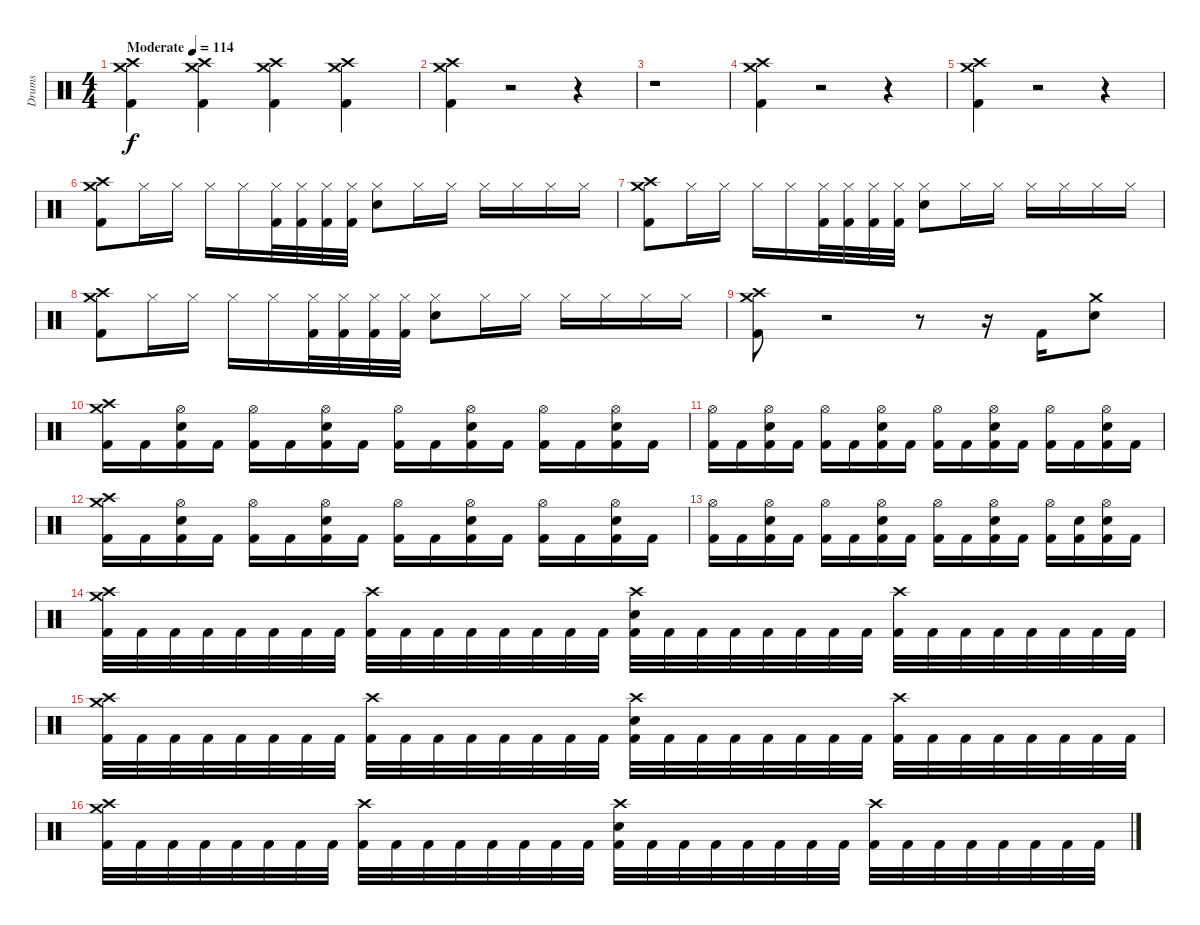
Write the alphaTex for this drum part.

\track ("Drums" "Drums") {instrument percussion}
\staff {score}
\articulation defaults
\ts (4 4)
\tempo (114 "Moderate")
\clef neutral
\ks c
("Crash high (hit)" "Crash medium (hit)" "Kick (hit) 2").4{dy f} ("Crash high (hit)" "Crash medium (hit)" "Kick (hit) 2").4 ("Crash high (hit)" "Crash medium (hit)" "Kick (hit) 2").4 ("Crash high (hit)" "Crash medium (hit)" "Kick (hit) 2").4 |
("Crash high (hit)" "Crash medium (hit)" "Kick (hit) 2").4 r.2 r.4 |
r.1 |
("Crash high (hit)" "Crash medium (hit)" "Kick (hit) 2").4 r.2 r.4 |
("Crash high (hit)" "Crash medium (hit)" "Kick (hit) 2").4 r.2 r.4 |
("Crash high (hit)" "Crash medium (hit)" "Kick (hit) 2").8 "Hi-Hat (closed)".16 "Hi-Hat (closed)".16 "Hi-Hat (closed)".16 "Hi-Hat (closed)".16 ("Hi-Hat (closed)" "Kick (hit) 2").32 ("Hi-Hat (closed)" "Kick (hit) 2").32 ("Hi-Hat (closed)" "Kick (hit) 2").32 ("Hi-Hat (closed)" "Kick (hit) 2").32 ("Hi-Hat (closed)" "Snare (hit) 2").8 "Hi-Hat (closed)".16 "Hi-Hat (closed)".16 "Hi-Hat (closed)".16 "Hi-Hat (closed)".16 "Hi-Hat (closed)".16 "Hi-Hat (closed)".16 |
("Crash high (hit)" "Crash medium (hit)" "Kick (hit) 2").8 "Hi-Hat (closed)".16 "Hi-Hat (closed)".16 "Hi-Hat (closed)".16 "Hi-Hat (closed)".16 ("Hi-Hat (closed)" "Kick (hit) 2").32 ("Hi-Hat (closed)" "Kick (hit) 2").32 ("Hi-Hat (closed)" "Kick (hit) 2").32 ("Hi-Hat (closed)" "Kick (hit) 2").32 ("Hi-Hat (closed)" "Snare (hit) 2").8 "Hi-Hat (closed)".16 "Hi-Hat (closed)".16 "Hi-Hat (closed)".16 "Hi-Hat (closed)".16 "Hi-Hat (closed)".16 "Hi-Hat (closed)".16 |
("Crash high (hit)" "Crash medium (hit)" "Kick (hit) 2").8 "Hi-Hat (closed)".16 "Hi-Hat (closed)".16 "Hi-Hat (closed)".16 "Hi-Hat (closed)".16 ("Hi-Hat (closed)" "Kick (hit) 2").32 ("Hi-Hat (closed)" "Kick (hit) 2").32 ("Hi-Hat (closed)" "Kick (hit) 2").32 ("Hi-Hat (closed)" "Kick (hit) 2").32 ("Hi-Hat (closed)" "Snare (hit) 2").8 "Hi-Hat (closed)".16 "Hi-Hat (closed)".16 "Hi-Hat (closed)".16 "Hi-Hat (closed)".16 "Hi-Hat (closed)".16 "Hi-Hat (closed)".16 |
("Crash high (hit)" "Crash medium (hit)" "Kick (hit) 2").8 r.2 r.8 r.16 "Kick (hit) 2".16 ("Crash medium (hit)" "Snare (hit) 2").8 |
("Crash medium (hit)" "Crash high (hit)" "Kick (hit) 2").16 "Kick (hit) 2".16 ("Hi-Hat (open)" "Snare (hit) 2" "Kick (hit) 2").16 "Kick (hit) 2".16 ("Hi-Hat (open)" "Kick (hit) 2").16 "Kick (hit) 2".16 ("Hi-Hat (open)" "Snare (hit) 2" "Kick (hit) 2").16 "Kick (hit) 2".16 ("Hi-Hat (open)" "Kick (hit) 2").16 "Kick (hit) 2".16 ("Hi-Hat (open)" "Snare (hit) 2" "Kick (hit) 2").16 "Kick (hit) 2".16 ("Hi-Hat (open)" "Kick (hit) 2").16 "Kick (hit) 2".16 ("Hi-Hat (open)" "Snare (hit) 2" "Kick (hit) 2").16 "Kick (hit) 2".16 |
("Hi-Hat (open)" "Kick (hit) 2").16 "Kick (hit) 2".16 ("Hi-Hat (open)" "Snare (hit) 2" "Kick (hit) 2").16 "Kick (hit) 2".16 ("Hi-Hat (open)" "Kick (hit) 2").16 "Kick (hit) 2".16 ("Hi-Hat (open)" "Snare (hit) 2" "Kick (hit) 2").16 "Kick (hit) 2".16 ("Hi-Hat (open)" "Kick (hit) 2").16 "Kick (hit) 2".16 ("Hi-Hat (open)" "Snare (hit) 2" "Kick (hit) 2").16 "Kick (hit) 2".16 ("Hi-Hat (open)" "Kick (hit) 2").16 "Kick (hit) 2".16 ("Hi-Hat (open)" "Snare (hit) 2" "Kick (hit) 2").16 "Kick (hit) 2".16 |
("Crash medium (hit)" "Crash high (hit)" "Kick (hit) 2").16 "Kick (hit) 2".16 ("Hi-Hat (open)" "Snare (hit) 2" "Kick (hit) 2").16 "Kick (hit) 2".16 ("Hi-Hat (open)" "Kick (hit) 2").16 "Kick (hit) 2".16 ("Hi-Hat (open)" "Snare (hit) 2" "Kick (hit) 2").16 "Kick (hit) 2".16 ("Hi-Hat (open)" "Kick (hit) 2").16 "Kick (hit) 2".16 ("Hi-Hat (open)" "Snare (hit) 2" "Kick (hit) 2").16 "Kick (hit) 2".16 ("Hi-Hat (open)" "Kick (hit) 2").16 "Kick (hit) 2".16 ("Hi-Hat (open)" "Snare (hit) 2" "Kick (hit) 2").16 "Kick (hit) 2".16 |
("Hi-Hat (open)" "Kick (hit) 2").16 "Kick (hit) 2".16 ("Hi-Hat (open)" "Snare (hit) 2" "Kick (hit) 2").16 "Kick (hit) 2".16 ("Hi-Hat (open)" "Kick (hit) 2").16 "Kick (hit) 2".16 ("Hi-Hat (open)" "Snare (hit) 2" "Kick (hit) 2").16 "Kick (hit) 2".16 ("Hi-Hat (open)" "Kick (hit) 2").16 "Kick (hit) 2".16 ("Hi-Hat (open)" "Snare (hit) 2" "Kick (hit) 2").16 "Kick (hit) 2".16 ("Hi-Hat (open)" "Kick (hit) 2").16 ("Snare (hit) 2" "Kick (hit) 2").16 ("Hi-Hat (open)" "Snare (hit) 2" "Kick (hit) 2").16 "Kick (hit) 2".16 |
("Crash medium (hit)" "Crash high (hit)" "Kick (hit) 2").32 "Kick (hit) 2".32 "Kick (hit) 2".32 "Kick (hit) 2".32 "Kick (hit) 2".32 "Kick (hit) 2".32 "Kick (hit) 2".32 "Kick (hit) 2".32 ("Crash high (hit)" "Kick (hit) 2").32 "Kick (hit) 2".32 "Kick (hit) 2".32 "Kick (hit) 2".32 "Kick (hit) 2".32 "Kick (hit) 2".32 "Kick (hit) 2".32 "Kick (hit) 2".32 ("Crash high (hit)" "Snare (hit) 2" "Kick (hit) 2").32 "Kick (hit) 2".32 "Kick (hit) 2".32 "Kick (hit) 2".32 "Kick (hit) 2".32 "Kick (hit) 2".32 "Kick (hit) 2".32 "Kick (hit) 2".32 ("Crash high (hit)" "Kick (hit) 2").32 "Kick (hit) 2".32 "Kick (hit) 2".32 "Kick (hit) 2".32 "Kick (hit) 2".32 "Kick (hit) 2".32 "Kick (hit) 2".32 "Kick (hit) 2".32 |
("Crash medium (hit)" "Crash high (hit)" "Kick (hit) 2").32 "Kick (hit) 2".32 "Kick (hit) 2".32 "Kick (hit) 2".32 "Kick (hit) 2".32 "Kick (hit) 2".32 "Kick (hit) 2".32 "Kick (hit) 2".32 ("Crash high (hit)" "Kick (hit) 2").32 "Kick (hit) 2".32 "Kick (hit) 2".32 "Kick (hit) 2".32 "Kick (hit) 2".32 "Kick (hit) 2".32 "Kick (hit) 2".32 "Kick (hit) 2".32 ("Crash high (hit)" "Snare (hit) 2" "Kick (hit) 2").32 "Kick (hit) 2".32 "Kick (hit) 2".32 "Kick (hit) 2".32 "Kick (hit) 2".32 "Kick (hit) 2".32 "Kick (hit) 2".32 "Kick (hit) 2".32 ("Crash high (hit)" "Kick (hit) 2").32 "Kick (hit) 2".32 "Kick (hit) 2".32 "Kick (hit) 2".32 "Kick (hit) 2".32 "Kick (hit) 2".32 "Kick (hit) 2".32 "Kick (hit) 2".32 |
("Crash medium (hit)" "Crash high (hit)" "Kick (hit) 2").32 "Kick (hit) 2".32 "Kick (hit) 2".32 "Kick (hit) 2".32 "Kick (hit) 2".32 "Kick (hit) 2".32 "Kick (hit) 2".32 "Kick (hit) 2".32 ("Crash high (hit)" "Kick (hit) 2").32 "Kick (hit) 2".32 "Kick (hit) 2".32 "Kick (hit) 2".32 "Kick (hit) 2".32 "Kick (hit) 2".32 "Kick (hit) 2".32 "Kick (hit) 2".32 ("Crash high (hit)" "Snare (hit) 2" "Kick (hit) 2").32 "Kick (hit) 2".32 "Kick (hit) 2".32 "Kick (hit) 2".32 "Kick (hit) 2".32 "Kick (hit) 2".32 "Kick (hit) 2".32 "Kick (hit) 2".32 ("Crash high (hit)" "Kick (hit) 2").32 "Kick (hit) 2".32 "Kick (hit) 2".32 "Kick (hit) 2".32 "Kick (hit) 2".32 "Kick (hit) 2".32 "Kick (hit) 2".32 "Kick (hit) 2".32
